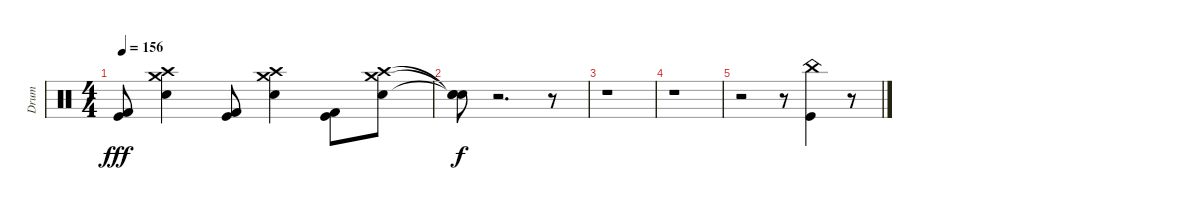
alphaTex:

\track ("Drum" "Drum") {instrument percussion}
\staff {score}
\articulation defaults
\ts (4 4)
\tempo 156
\clef neutral
\ks c
("Kick (hit) 2" "Kick (hit)").8{dy fff} ("Crash high (hit)" "Crash medium (hit)" "Metronome (bell)").4 ("Kick (hit) 2" "Kick (hit)").8 ("Metronome (bell)" "Crash medium (hit)" "Crash high (hit)").4 ("Kick (hit) 2" "Kick (hit)").8 ("Crash medium (hit)" "Crash high (hit)" "Metronome (bell)").8 |
("Snare (hit)"{t} "Snare (hit)"{t} "Snare (hit)"{t}).8{dy f} r.2{d} r.8 |
r.1 |
r.1 |
r.2 r.8 ("China (hit)" "Kick (hit)").4 r.8
